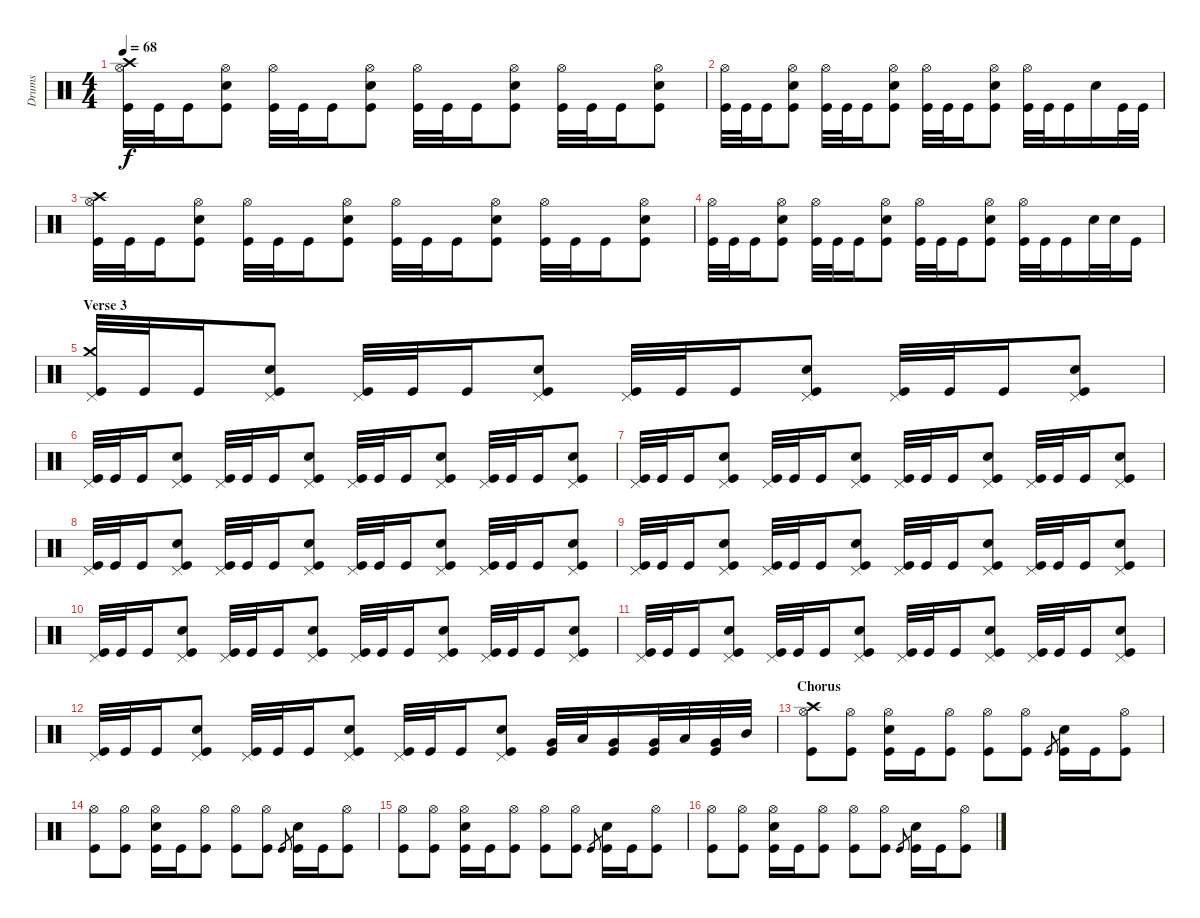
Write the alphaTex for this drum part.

\track ("Drums" "Drums") {instrument percussion}
\staff {score}
\articulation defaults
\ts (4 4)
\tempo 68
\clef neutral
\ks c
("Crash high (hit)" "Hi-Hat (open)" "Kick (hit)").32{dy f} "Kick (hit)".32 "Kick (hit)".16 ("Hi-Hat (open)" "Snare (hit) 2" "Kick (hit)").8 ("Hi-Hat (open)" "Kick (hit)").32 "Kick (hit)".32 "Kick (hit)".16 ("Hi-Hat (open)" "Snare (hit) 2" "Kick (hit)").8 ("Hi-Hat (open)" "Kick (hit)").32 "Kick (hit)".32 "Kick (hit)".16 ("Hi-Hat (open)" "Snare (hit) 2" "Kick (hit)").8 ("Hi-Hat (open)" "Kick (hit)").32 "Kick (hit)".32 "Kick (hit)".16 ("Hi-Hat (open)" "Snare (hit) 2" "Kick (hit)").8 |
("Hi-Hat (open)" "Kick (hit)").32 "Kick (hit)".32 "Kick (hit)".16 ("Hi-Hat (open)" "Snare (hit) 2" "Kick (hit)").8 ("Hi-Hat (open)" "Kick (hit)").32 "Kick (hit)".32 "Kick (hit)".16 ("Hi-Hat (open)" "Snare (hit) 2" "Kick (hit)").8 ("Hi-Hat (open)" "Kick (hit)").32 "Kick (hit)".32 "Kick (hit)".16 ("Hi-Hat (open)" "Snare (hit) 2" "Kick (hit)").8 ("Hi-Hat (open)" "Kick (hit)").32 "Kick (hit)".32 "Kick (hit)".16 "Snare (hit) 2".16 "Kick (hit)".32 "Kick (hit)".32 |
("Crash high (hit)" "Hi-Hat (open)" "Kick (hit)").32 "Kick (hit)".32 "Kick (hit)".16 ("Hi-Hat (open)" "Snare (hit) 2" "Kick (hit)").8 ("Hi-Hat (open)" "Kick (hit)").32 "Kick (hit)".32 "Kick (hit)".16 ("Hi-Hat (open)" "Snare (hit) 2" "Kick (hit)").8 ("Hi-Hat (open)" "Kick (hit)").32 "Kick (hit)".32 "Kick (hit)".16 ("Hi-Hat (open)" "Snare (hit) 2" "Kick (hit)").8 ("Hi-Hat (open)" "Kick (hit)").32 "Kick (hit)".32 "Kick (hit)".16 ("Hi-Hat (open)" "Snare (hit) 2" "Kick (hit)").8 |
("Hi-Hat (open)" "Kick (hit)").32 "Kick (hit)".32 "Kick (hit)".16 ("Hi-Hat (open)" "Snare (hit) 2" "Kick (hit)").8 ("Hi-Hat (open)" "Kick (hit)").32 "Kick (hit)".32 "Kick (hit)".16 ("Hi-Hat (open)" "Snare (hit) 2" "Kick (hit)").8 ("Hi-Hat (open)" "Kick (hit)").32 "Kick (hit)".32 "Kick (hit)".16 ("Hi-Hat (open)" "Snare (hit) 2" "Kick (hit)").8 ("Hi-Hat (open)" "Kick (hit)").32 "Kick (hit)".32 "Kick (hit)".16 "Snare (hit) 2".32 "Snare (hit) 2".32 "Kick (hit)".16 |
\section ("" "Verse 3")
("Crash medium (hit)" "Pedal Hi-Hat (hit)" "Kick (hit)").32 "Kick (hit)".32 "Kick (hit)".16 ("Pedal Hi-Hat (hit)" "Snare (hit) 2" "Kick (hit)").8 ("Pedal Hi-Hat (hit)" "Kick (hit)").32 "Kick (hit)".32 "Kick (hit)".16 ("Pedal Hi-Hat (hit)" "Snare (hit) 2" "Kick (hit)").8 ("Pedal Hi-Hat (hit)" "Kick (hit)").32 "Kick (hit)".32 "Kick (hit)".16 ("Pedal Hi-Hat (hit)" "Snare (hit) 2" "Kick (hit)").8 ("Pedal Hi-Hat (hit)" "Kick (hit)").32 "Kick (hit)".32 "Kick (hit)".16 ("Pedal Hi-Hat (hit)" "Snare (hit) 2" "Kick (hit)").8 |
("Pedal Hi-Hat (hit)" "Kick (hit)").32 "Kick (hit)".32 "Kick (hit)".16 ("Pedal Hi-Hat (hit)" "Snare (hit) 2" "Kick (hit)").8 ("Pedal Hi-Hat (hit)" "Kick (hit)").32 "Kick (hit)".32 "Kick (hit)".16 ("Pedal Hi-Hat (hit)" "Snare (hit) 2" "Kick (hit)").8 ("Pedal Hi-Hat (hit)" "Kick (hit)").32 "Kick (hit)".32 "Kick (hit)".16 ("Pedal Hi-Hat (hit)" "Snare (hit) 2" "Kick (hit)").8 ("Pedal Hi-Hat (hit)" "Kick (hit)").32 "Kick (hit)".32 "Kick (hit)".16 ("Pedal Hi-Hat (hit)" "Snare (hit) 2" "Kick (hit)").8 |
("Pedal Hi-Hat (hit)" "Kick (hit)").32 "Kick (hit)".32 "Kick (hit)".16 ("Pedal Hi-Hat (hit)" "Snare (hit) 2" "Kick (hit)").8 ("Pedal Hi-Hat (hit)" "Kick (hit)").32 "Kick (hit)".32 "Kick (hit)".16 ("Pedal Hi-Hat (hit)" "Snare (hit) 2" "Kick (hit)").8 ("Pedal Hi-Hat (hit)" "Kick (hit)").32 "Kick (hit)".32 "Kick (hit)".16 ("Pedal Hi-Hat (hit)" "Snare (hit) 2" "Kick (hit)").8 ("Pedal Hi-Hat (hit)" "Kick (hit)").32 "Kick (hit)".32 "Kick (hit)".16 ("Pedal Hi-Hat (hit)" "Snare (hit) 2" "Kick (hit)").8 |
("Pedal Hi-Hat (hit)" "Kick (hit)").32 "Kick (hit)".32 "Kick (hit)".16 ("Pedal Hi-Hat (hit)" "Snare (hit) 2" "Kick (hit)").8 ("Pedal Hi-Hat (hit)" "Kick (hit)").32 "Kick (hit)".32 "Kick (hit)".16 ("Pedal Hi-Hat (hit)" "Snare (hit) 2" "Kick (hit)").8 ("Pedal Hi-Hat (hit)" "Kick (hit)").32 "Kick (hit)".32 "Kick (hit)".16 ("Pedal Hi-Hat (hit)" "Snare (hit) 2" "Kick (hit)").8 ("Pedal Hi-Hat (hit)" "Kick (hit)").32 "Kick (hit)".32 "Kick (hit)".16 ("Pedal Hi-Hat (hit)" "Snare (hit) 2" "Kick (hit)").8 |
("Pedal Hi-Hat (hit)" "Kick (hit)").32 "Kick (hit)".32 "Kick (hit)".16 ("Pedal Hi-Hat (hit)" "Snare (hit) 2" "Kick (hit)").8 ("Pedal Hi-Hat (hit)" "Kick (hit)").32 "Kick (hit)".32 "Kick (hit)".16 ("Pedal Hi-Hat (hit)" "Snare (hit) 2" "Kick (hit)").8 ("Pedal Hi-Hat (hit)" "Kick (hit)").32 "Kick (hit)".32 "Kick (hit)".16 ("Pedal Hi-Hat (hit)" "Snare (hit) 2" "Kick (hit)").8 ("Pedal Hi-Hat (hit)" "Kick (hit)").32 "Kick (hit)".32 "Kick (hit)".16 ("Pedal Hi-Hat (hit)" "Snare (hit) 2" "Kick (hit)").8 |
("Pedal Hi-Hat (hit)" "Kick (hit)").32 "Kick (hit)".32 "Kick (hit)".16 ("Pedal Hi-Hat (hit)" "Snare (hit) 2" "Kick (hit)").8 ("Pedal Hi-Hat (hit)" "Kick (hit)").32 "Kick (hit)".32 "Kick (hit)".16 ("Pedal Hi-Hat (hit)" "Snare (hit) 2" "Kick (hit)").8 ("Pedal Hi-Hat (hit)" "Kick (hit)").32 "Kick (hit)".32 "Kick (hit)".16 ("Pedal Hi-Hat (hit)" "Snare (hit) 2" "Kick (hit)").8 ("Pedal Hi-Hat (hit)" "Kick (hit)").32 "Kick (hit)".32 "Kick (hit)".16 ("Pedal Hi-Hat (hit)" "Snare (hit) 2" "Kick (hit)").8 |
("Pedal Hi-Hat (hit)" "Kick (hit)").32 "Kick (hit)".32 "Kick (hit)".16 ("Pedal Hi-Hat (hit)" "Snare (hit) 2" "Kick (hit)").8 ("Pedal Hi-Hat (hit)" "Kick (hit)").32 "Kick (hit)".32 "Kick (hit)".16 ("Pedal Hi-Hat (hit)" "Snare (hit) 2" "Kick (hit)").8 ("Pedal Hi-Hat (hit)" "Kick (hit)").32 "Kick (hit)".32 "Kick (hit)".16 ("Pedal Hi-Hat (hit)" "Snare (hit) 2" "Kick (hit)").8 ("Pedal Hi-Hat (hit)" "Kick (hit)").32 "Kick (hit)".32 "Kick (hit)".16 ("Pedal Hi-Hat (hit)" "Snare (hit) 2" "Kick (hit)").8 |
("Pedal Hi-Hat (hit)" "Kick (hit)").32 "Kick (hit)".32 "Kick (hit)".16 ("Pedal Hi-Hat (hit)" "Snare (hit) 2" "Kick (hit)").8 ("Pedal Hi-Hat (hit)" "Kick (hit)").32 "Kick (hit)".32 "Kick (hit)".16 ("Pedal Hi-Hat (hit)" "Snare (hit) 2" "Kick (hit)").8 ("Pedal Hi-Hat (hit)" "Kick (hit)").32 "Kick (hit)".32 "Kick (hit)".16 ("Pedal Hi-Hat (hit)" "Snare (hit) 2" "Kick (hit)").8 ("Very Low Tom (hit)" "Kick (hit)").32 "Low Tom (hit)".32 ("Very Low Tom (hit)" "Kick (hit)").16 ("Very Low Tom (hit)" "Kick (hit)").32 "Low Tom (hit)".32 ("Very Low Tom (hit)" "Kick (hit)").32 "Mid Tom (hit)".32 |
\section ("" "Chorus")
("Crash high (hit)" "Hi-Hat (open)" "Kick (hit)").8 ("Hi-Hat (open)" "Kick (hit)").8 ("Hi-Hat (open)" "Snare (hit) 2" "Kick (hit)").16 "Kick (hit)".16 ("Hi-Hat (open)" "Kick (hit)").8 ("Hi-Hat (open)" "Kick (hit)").8 ("Hi-Hat (open)" "Kick (hit)").8 "Kick (hit)".8{gr} ("Snare (hit) 2" "Kick (hit)").16 "Kick (hit)".16 ("Hi-Hat (open)" "Kick (hit)").8 |
("Hi-Hat (open)" "Kick (hit)").8 ("Hi-Hat (open)" "Kick (hit)").8 ("Hi-Hat (open)" "Snare (hit) 2" "Kick (hit)").16 "Kick (hit)".16 ("Hi-Hat (open)" "Kick (hit)").8 ("Hi-Hat (open)" "Kick (hit)").8 ("Hi-Hat (open)" "Kick (hit)").8 "Kick (hit)".8{gr} ("Snare (hit) 2" "Kick (hit)").16 "Kick (hit)".16 ("Hi-Hat (open)" "Kick (hit)").8 |
("Hi-Hat (open)" "Kick (hit)").8 ("Hi-Hat (open)" "Kick (hit)").8 ("Hi-Hat (open)" "Snare (hit) 2" "Kick (hit)").16 "Kick (hit)".16 ("Hi-Hat (open)" "Kick (hit)").8 ("Hi-Hat (open)" "Kick (hit)").8 ("Hi-Hat (open)" "Kick (hit)").8 "Kick (hit)".8{gr} ("Snare (hit) 2" "Kick (hit)").16 "Kick (hit)".16 ("Hi-Hat (open)" "Kick (hit)").8 |
("Hi-Hat (open)" "Kick (hit)").8 ("Hi-Hat (open)" "Kick (hit)").8 ("Hi-Hat (open)" "Snare (hit) 2" "Kick (hit)").16 "Kick (hit)".16 ("Hi-Hat (open)" "Kick (hit)").8 ("Hi-Hat (open)" "Kick (hit)").8 ("Hi-Hat (open)" "Kick (hit)").8 "Kick (hit)".8{gr} ("Snare (hit) 2" "Kick (hit)").16 "Kick (hit)".16 ("Hi-Hat (open)" "Kick (hit)").8
